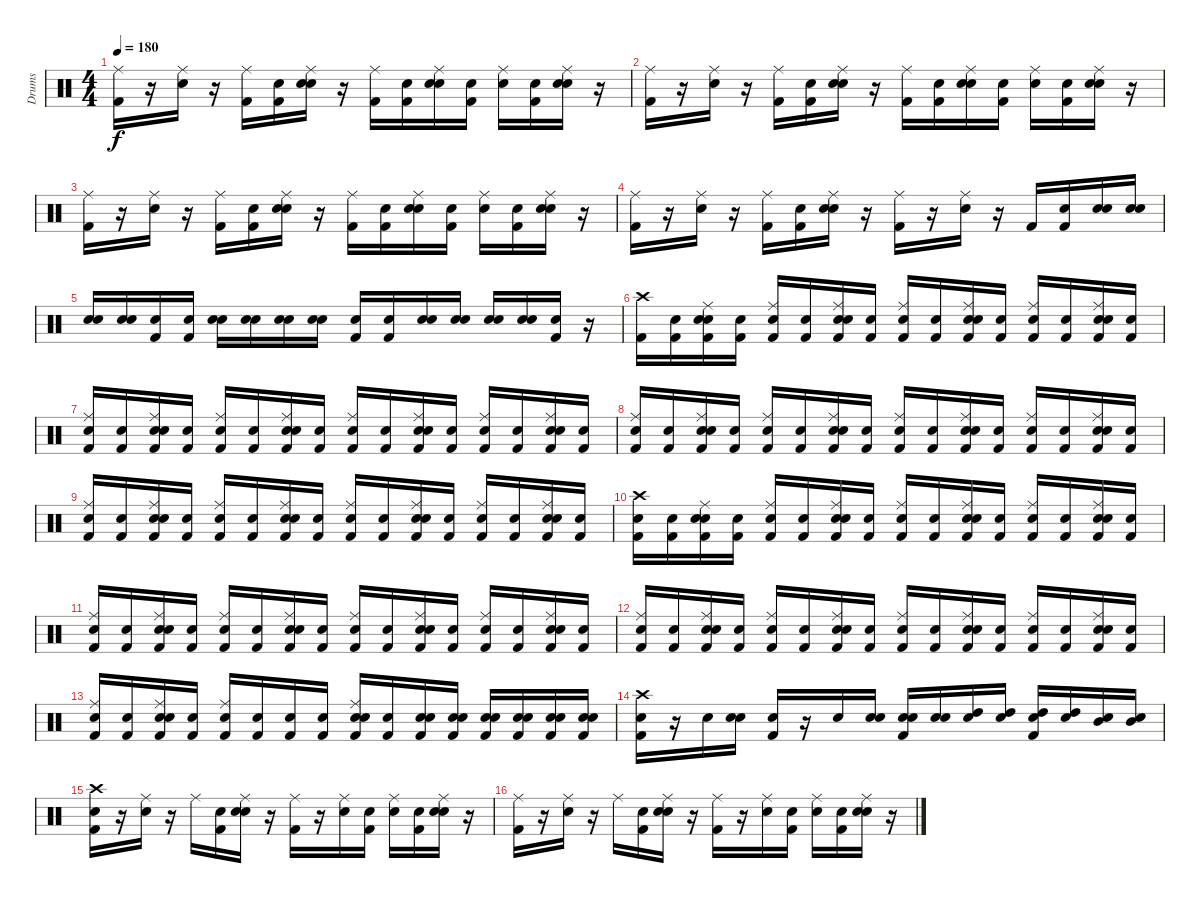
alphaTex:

\track ("Drums" "Drums") {instrument percussion}
\staff {score}
\articulation defaults
\ts (4 4)
\tempo 180
\clef neutral
\ks c
("Kick (hit) 2" "Ride (middle)").16{dy f} r.16 ("Snare (hit) 2" "Ride (middle)").16 r.16 ("Kick (hit) 2" "Ride (middle)").16 ("Snare (hit)" "Kick (hit) 2").16 ("Snare (hit)" "Snare (hit) 2" "Ride (middle)").16 r.16 ("Kick (hit) 2" "Ride (middle)").16 ("Snare (hit)" "Kick (hit) 2").16 ("Snare (hit)" "Snare (hit) 2" "Ride (middle)").16 ("Snare (hit)" "Kick (hit) 2").16 ("Snare (hit)" "Ride (middle)").16 ("Snare (hit)" "Kick (hit) 2").16 ("Snare (hit)" "Snare (hit) 2" "Ride (middle)").16 r.16 |
("Kick (hit) 2" "Ride (middle)").16 r.16 ("Snare (hit) 2" "Ride (middle)").16 r.16 ("Kick (hit) 2" "Ride (middle)").16 ("Snare (hit)" "Kick (hit) 2").16 ("Snare (hit)" "Snare (hit) 2" "Ride (middle)").16 r.16 ("Kick (hit) 2" "Ride (middle)").16 ("Snare (hit)" "Kick (hit) 2").16 ("Snare (hit)" "Snare (hit) 2" "Ride (middle)").16 ("Snare (hit)" "Kick (hit) 2").16 ("Snare (hit)" "Ride (middle)").16 ("Snare (hit)" "Kick (hit) 2").16 ("Snare (hit)" "Snare (hit) 2" "Ride (middle)").16 r.16 |
("Kick (hit) 2" "Ride (middle)").16 r.16 ("Snare (hit) 2" "Ride (middle)").16 r.16 ("Kick (hit) 2" "Ride (middle)").16 ("Snare (hit)" "Kick (hit) 2").16 ("Snare (hit)" "Snare (hit) 2" "Ride (middle)").16 r.16 ("Kick (hit) 2" "Ride (middle)").16 ("Snare (hit)" "Kick (hit) 2").16 ("Snare (hit)" "Snare (hit) 2" "Ride (middle)").16 ("Snare (hit)" "Kick (hit) 2").16 ("Snare (hit)" "Ride (middle)").16 ("Snare (hit)" "Kick (hit) 2").16 ("Snare (hit)" "Snare (hit) 2" "Ride (middle)").16 r.16 |
("Kick (hit) 2" "Ride (middle)").16 r.16 ("Snare (hit) 2" "Ride (middle)").16 r.16 ("Kick (hit) 2" "Ride (middle)").16 ("Snare (hit)" "Kick (hit) 2").16 ("Snare (hit)" "Snare (hit) 2" "Ride (middle)").16 r.16 ("Kick (hit) 2" "Ride (middle)").16 r.16 ("Snare (hit) 2" "Ride (middle)").16 r.16 "Kick (hit) 2".16 ("Snare (hit)" "Kick (hit) 2").16 ("Snare (hit)" "Snare (hit) 2").16 ("Snare (hit)" "Snare (hit) 2").16 |
("Snare (hit)" "Snare (hit) 2").16 ("Snare (hit)" "Snare (hit) 2").16 ("Snare (hit)" "Kick (hit) 2").16 ("Snare (hit)" "Kick (hit) 2").16 ("Snare (hit)" "Snare (hit) 2").16 ("Snare (hit)" "Snare (hit) 2").16 ("Snare (hit)" "Snare (hit) 2").16 ("Snare (hit)" "Snare (hit) 2").16 ("Snare (hit)" "Kick (hit) 2").16 ("Snare (hit)" "Kick (hit) 2").16 ("Snare (hit)" "Snare (hit) 2").16 ("Snare (hit)" "Snare (hit) 2").16 ("Snare (hit)" "Snare (hit) 2").16 ("Snare (hit)" "Snare (hit) 2").16 ("Snare (hit)" "Kick (hit) 2").16 r.16 |
("Kick (hit) 2" "Crash high (hit)").16 ("Snare (hit)" "Kick (hit) 2").16 ("Snare (hit)" "Snare (hit) 2" "Kick (hit) 2" "Ride (middle)").16 ("Snare (hit)" "Kick (hit) 2").16 ("Snare (hit)" "Kick (hit) 2" "Ride (middle)").16 ("Snare (hit)" "Kick (hit) 2").16 ("Snare (hit)" "Snare (hit) 2" "Kick (hit) 2" "Ride (middle)").16 ("Snare (hit)" "Kick (hit) 2").16 ("Snare (hit)" "Kick (hit) 2" "Ride (middle)").16 ("Snare (hit)" "Kick (hit) 2").16 ("Snare (hit)" "Kick (hit) 2" "Ride (middle)" "Snare (hit) 2").16 ("Snare (hit)" "Kick (hit) 2").16 ("Snare (hit)" "Kick (hit) 2" "Ride (middle)").16 ("Snare (hit)" "Kick (hit) 2").16 ("Snare (hit)" "Snare (hit) 2" "Kick (hit) 2" "Ride (middle)").16 ("Snare (hit)" "Kick (hit) 2").16 |
("Snare (hit)" "Kick (hit) 2" "Ride (middle)").16 ("Snare (hit)" "Kick (hit) 2").16 ("Snare (hit)" "Snare (hit) 2" "Kick (hit) 2" "Ride (middle)").16 ("Snare (hit)" "Kick (hit) 2").16 ("Snare (hit)" "Kick (hit) 2" "Ride (middle)").16 ("Snare (hit)" "Kick (hit) 2").16 ("Snare (hit)" "Snare (hit) 2" "Kick (hit) 2" "Ride (middle)").16 ("Snare (hit)" "Kick (hit) 2").16 ("Snare (hit)" "Kick (hit) 2" "Ride (middle)").16 ("Snare (hit)" "Kick (hit) 2").16 ("Snare (hit)" "Snare (hit) 2" "Kick (hit) 2" "Ride (middle)").16 ("Snare (hit)" "Kick (hit) 2").16 ("Snare (hit)" "Kick (hit) 2" "Ride (middle)").16 ("Snare (hit)" "Kick (hit) 2").16 ("Snare (hit)" "Snare (hit) 2" "Kick (hit) 2" "Ride (middle)").16 ("Snare (hit)" "Kick (hit) 2").16 |
("Snare (hit)" "Kick (hit) 2" "Ride (middle)").16 ("Snare (hit)" "Kick (hit) 2").16 ("Snare (hit)" "Snare (hit) 2" "Kick (hit) 2" "Ride (middle)").16 ("Snare (hit)" "Kick (hit) 2").16 ("Snare (hit)" "Kick (hit) 2" "Ride (middle)").16 ("Snare (hit)" "Kick (hit) 2").16 ("Snare (hit)" "Snare (hit) 2" "Kick (hit) 2" "Ride (middle)").16 ("Snare (hit)" "Kick (hit) 2").16 ("Snare (hit)" "Kick (hit) 2" "Ride (middle)").16 ("Snare (hit)" "Kick (hit) 2").16 ("Snare (hit)" "Snare (hit) 2" "Kick (hit) 2" "Ride (middle)").16 ("Snare (hit)" "Kick (hit) 2").16 ("Snare (hit)" "Kick (hit) 2" "Ride (middle)").16 ("Snare (hit)" "Kick (hit) 2").16 ("Snare (hit)" "Snare (hit) 2" "Kick (hit) 2" "Ride (middle)").16 ("Snare (hit)" "Kick (hit) 2").16 |
("Snare (hit)" "Kick (hit) 2" "Ride (middle)").16 ("Snare (hit)" "Kick (hit) 2").16 ("Snare (hit)" "Snare (hit) 2" "Kick (hit) 2" "Ride (middle)").16 ("Snare (hit)" "Kick (hit) 2").16 ("Snare (hit)" "Kick (hit) 2" "Ride (middle)").16 ("Snare (hit)" "Kick (hit) 2").16 ("Snare (hit)" "Snare (hit) 2" "Kick (hit) 2" "Ride (middle)").16 ("Snare (hit)" "Kick (hit) 2").16 ("Snare (hit)" "Kick (hit) 2" "Ride (middle)").16 ("Snare (hit)" "Kick (hit) 2").16 ("Snare (hit)" "Snare (hit) 2" "Kick (hit) 2" "Ride (middle)").16 ("Snare (hit)" "Kick (hit) 2").16 ("Snare (hit)" "Kick (hit) 2" "Ride (middle)").16 ("Snare (hit)" "Kick (hit) 2").16 ("Snare (hit)" "Snare (hit) 2" "Kick (hit) 2" "Ride (middle)").16 ("Snare (hit)" "Kick (hit) 2").16 |
("Snare (hit)" "Kick (hit) 2" "Crash high (hit)").16 ("Snare (hit)" "Kick (hit) 2").16 ("Snare (hit)" "Snare (hit) 2" "Kick (hit) 2" "Ride (middle)").16 ("Snare (hit)" "Kick (hit) 2").16 ("Snare (hit)" "Kick (hit) 2" "Ride (middle)").16 ("Snare (hit)" "Kick (hit) 2").16 ("Snare (hit)" "Snare (hit) 2" "Kick (hit) 2" "Ride (middle)").16 ("Snare (hit)" "Kick (hit) 2").16 ("Snare (hit)" "Kick (hit) 2" "Ride (middle)").16 ("Snare (hit)" "Kick (hit) 2").16 ("Snare (hit)" "Kick (hit) 2" "Ride (middle)" "Snare (hit) 2").16 ("Snare (hit)" "Kick (hit) 2").16 ("Snare (hit)" "Kick (hit) 2" "Ride (middle)").16 ("Snare (hit)" "Kick (hit) 2").16 ("Snare (hit)" "Snare (hit) 2" "Kick (hit) 2" "Ride (middle)").16 ("Snare (hit)" "Kick (hit) 2").16 |
("Snare (hit)" "Kick (hit) 2" "Ride (middle)").16 ("Snare (hit)" "Kick (hit) 2").16 ("Snare (hit)" "Snare (hit) 2" "Kick (hit) 2" "Ride (middle)").16 ("Snare (hit)" "Kick (hit) 2").16 ("Snare (hit)" "Kick (hit) 2" "Ride (middle)").16 ("Snare (hit)" "Kick (hit) 2").16 ("Snare (hit)" "Snare (hit) 2" "Kick (hit) 2" "Ride (middle)").16 ("Snare (hit)" "Kick (hit) 2").16 ("Snare (hit)" "Kick (hit) 2" "Ride (middle)").16 ("Snare (hit)" "Kick (hit) 2").16 ("Snare (hit)" "Snare (hit) 2" "Kick (hit) 2" "Ride (middle)").16 ("Snare (hit)" "Kick (hit) 2").16 ("Snare (hit)" "Kick (hit) 2" "Ride (middle)").16 ("Snare (hit)" "Kick (hit) 2").16 ("Snare (hit)" "Snare (hit) 2" "Kick (hit) 2" "Ride (middle)").16 ("Snare (hit)" "Kick (hit) 2").16 |
("Snare (hit)" "Kick (hit) 2" "Ride (middle)").16 ("Snare (hit)" "Kick (hit) 2").16 ("Snare (hit)" "Snare (hit) 2" "Kick (hit) 2" "Ride (middle)").16 ("Snare (hit)" "Kick (hit) 2").16 ("Snare (hit)" "Kick (hit) 2" "Ride (middle)").16 ("Snare (hit)" "Kick (hit) 2").16 ("Snare (hit)" "Snare (hit) 2" "Kick (hit) 2" "Ride (middle)").16 ("Snare (hit)" "Kick (hit) 2").16 ("Snare (hit)" "Kick (hit) 2" "Ride (middle)").16 ("Snare (hit)" "Kick (hit) 2").16 ("Snare (hit)" "Snare (hit) 2" "Kick (hit) 2" "Ride (middle)").16 ("Snare (hit)" "Kick (hit) 2").16 ("Snare (hit)" "Kick (hit) 2" "Ride (middle)").16 ("Snare (hit)" "Kick (hit) 2").16 ("Snare (hit)" "Snare (hit) 2" "Kick (hit) 2" "Ride (middle)").16 ("Snare (hit)" "Kick (hit) 2").16 |
("Snare (hit)" "Ride (middle)" "Kick (hit) 2").16 ("Snare (hit)" "Kick (hit) 2").16 ("Snare (hit)" "Snare (hit) 2" "Ride (middle)" "Kick (hit) 2").16 ("Snare (hit)" "Kick (hit) 2").16 ("Snare (hit)" "Ride (middle)" "Kick (hit) 2").16 ("Snare (hit)" "Kick (hit) 2").16 ("Snare (hit)" "Kick (hit) 2").16 ("Snare (hit)" "Kick (hit) 2").16 ("Snare (hit)" "Snare (hit) 2" "Ride (middle)" "Kick (hit) 2").16 ("Snare (hit)" "Kick (hit) 2").16 ("Snare (hit)" "Snare (hit) 2" "Kick (hit) 2").16 ("Snare (hit)" "Snare (hit) 2" "Kick (hit) 2").16 ("Snare (hit)" "Snare (hit) 2" "Kick (hit) 2").16 ("Snare (hit)" "Snare (hit) 2" "Kick (hit) 2").16 ("Snare (hit)" "Snare (hit) 2" "Kick (hit) 2").16 ("Snare (hit)" "Snare (hit) 2" "Kick (hit) 2").16 |
("Snare (hit)" "Kick (hit) 2" "Crash high (hit)").16 r.16 "Snare (hit) 2".16 ("Snare (hit)" "Snare (hit) 2").16 ("Snare (hit)" "Kick (hit) 2").16 r.16 "Snare (hit) 2".16 ("Snare (hit)" "Snare (hit) 2").16 ("Snare (hit)" "Snare (hit) 2" "Kick (hit) 2").16 ("Snare (hit)" "Snare (hit) 2").16 ("Snare (hit)" "High Tom (hit)").16 ("Snare (hit)" "High Tom (hit)").16 ("Snare (hit)" "High Tom (hit)" "Kick (hit) 2").16 ("Snare (hit)" "High Tom (hit)").16 ("Snare (hit)" "Mid Tom (hit)").16 ("Snare (hit)" "Mid Tom (hit)").16 |
("Snare (hit)" "Crash high (hit)" "Kick (hit) 2").16 r.16 ("Snare (hit) 2" "Ride (middle)").16 r.16 "Ride (middle)".16 ("Snare (hit)" "Kick (hit) 2").16 ("Snare (hit)" "Snare (hit) 2" "Ride (middle)").16 r.16 ("Kick (hit) 2" "Ride (middle)").16 r.16 ("Snare (hit) 2" "Ride (middle)").16 ("Snare (hit)" "Kick (hit) 2").16 ("Snare (hit)" "Ride (middle)").16 ("Snare (hit)" "Kick (hit) 2").16 ("Snare (hit)" "Snare (hit) 2" "Ride (middle)").16 r.16 |
("Kick (hit) 2" "Ride (middle)").16 r.16 ("Snare (hit) 2" "Ride (middle)").16 r.16 "Ride (middle)".16 ("Snare (hit)" "Kick (hit) 2").16 ("Snare (hit)" "Snare (hit) 2" "Ride (middle)").16 r.16 ("Kick (hit) 2" "Ride (middle)").16 r.16 ("Snare (hit) 2" "Ride (middle)").16 ("Snare (hit)" "Kick (hit) 2").16 ("Snare (hit)" "Ride (middle)").16 ("Snare (hit)" "Kick (hit) 2").16 ("Snare (hit)" "Snare (hit) 2" "Ride (middle)").16 r.16
